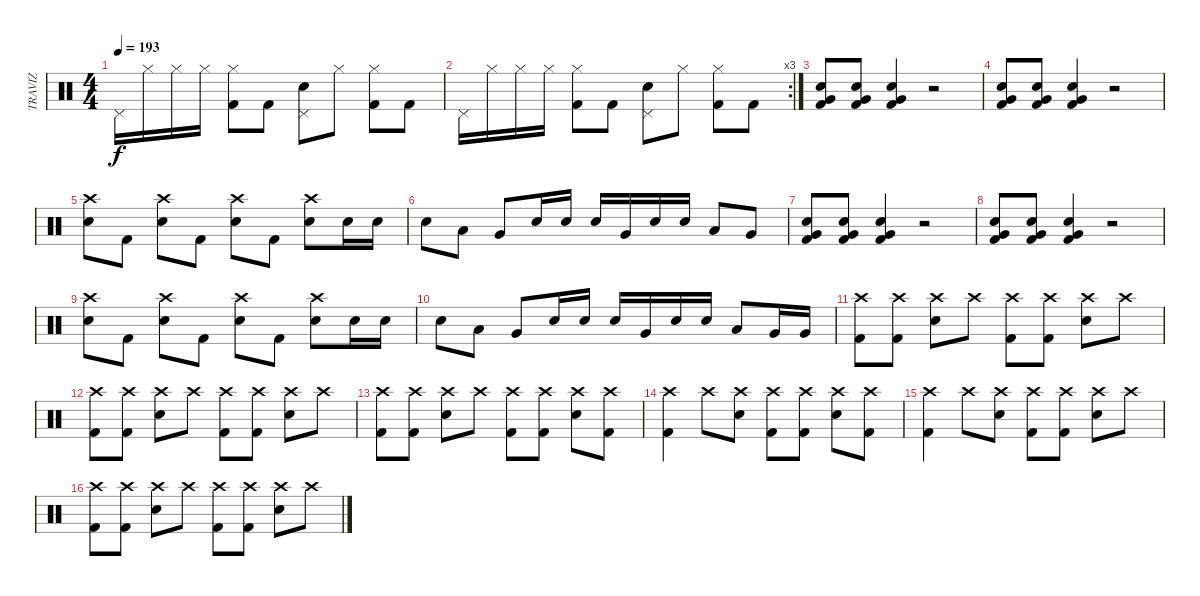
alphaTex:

\track ("TRAVIZ" "TRAVIZ") {instrument percussion}
\staff {score}
\articulation defaults
\ts (4 4)
\tempo 193
\clef neutral
\ks c "Pedal Hi-Hat (hit)".16{dy f} "Hi-Hat (closed)".16 "Hi-Hat (closed)".16 "Hi-Hat (closed)".16
("Hi-Hat (closed)" "Kick (hit) 2").8 "Kick (hit) 2".8 ("Snare (hit) 2" "Pedal Hi-Hat (hit)").8 "Hi-Hat (closed)".8 ("Hi-Hat (closed)" "Kick (hit) 2").8 "Kick (hit) 2".8 |
\rc 3 "Pedal Hi-Hat (hit)".16 "Hi-Hat (closed)".16 "Hi-Hat (closed)".16 "Hi-Hat (closed)".16
("Hi-Hat (closed)" "Kick (hit) 2").8 "Kick (hit) 2".8 ("Snare (hit) 2" "Pedal Hi-Hat (hit)").8 "Hi-Hat (closed)".8 ("Hi-Hat (closed)" "Kick (hit) 2").8 "Kick (hit) 2".8 |
("Snare (hit) 2" "Very Low Tom (hit)" "Kick (hit) 2").8 ("Snare (hit) 2" "Very Low Tom (hit)" "Kick (hit) 2").8 ("Snare (hit) 2" "Very Low Tom (hit)" "Kick (hit) 2").4 r.2 |
("Snare (hit) 2" "Very Low Tom (hit)" "Kick (hit) 2").8 ("Snare (hit) 2" "Very Low Tom (hit)" "Kick (hit) 2").8 ("Snare (hit) 2" "Very Low Tom (hit)" "Kick (hit) 2").4 r.2 |
("Crash high (hit)" "Snare (hit) 2").8 "Kick (hit) 2".8 ("Crash high (hit)" "Snare (hit) 2").8 "Kick (hit) 2".8 ("Crash high (hit)" "Snare (hit) 2").8 "Kick (hit) 2".8 ("Crash high (hit)" "Snare (hit) 2").8 "Snare (hit) 2".16 "Snare (hit) 2".16 |
"Snare (hit) 2".8 "Low Tom (hit)".8 "Very Low Tom (hit)".8 "Snare (hit) 2".16 "Snare (hit) 2".16 "Snare (hit) 2".16 "Very Low Tom (hit)".16 "Snare (hit) 2".16 "Snare (hit) 2".16 "Low Tom (hit)".8 "Very Low Tom (hit)".8 |
("Snare (hit) 2" "Very Low Tom (hit)" "Kick (hit) 2").8 ("Snare (hit) 2" "Very Low Tom (hit)" "Kick (hit) 2").8 ("Snare (hit) 2" "Very Low Tom (hit)" "Kick (hit) 2").4 r.2 |
("Snare (hit) 2" "Very Low Tom (hit)" "Kick (hit) 2").8 ("Snare (hit) 2" "Very Low Tom (hit)" "Kick (hit) 2").8 ("Snare (hit) 2" "Very Low Tom (hit)" "Kick (hit) 2").4 r.2 |
("Crash high (hit)" "Snare (hit) 2").8 "Kick (hit) 2".8 ("Crash high (hit)" "Snare (hit) 2").8 "Kick (hit) 2".8 ("Crash high (hit)" "Snare (hit) 2").8 "Kick (hit) 2".8 ("Crash high (hit)" "Snare (hit) 2").8 "Snare (hit) 2".16 "Snare (hit) 2".16 |
"Snare (hit) 2".8 "Low Tom (hit)".8 "Very Low Tom (hit)".8 "Snare (hit) 2".16 "Snare (hit) 2".16 "Snare (hit) 2".16 "Very Low Tom (hit)".16 "Snare (hit) 2".16 "Snare (hit) 2".16 "Low Tom (hit)".8 "Very Low Tom (hit)".16 "Very Low Tom (hit)".16 |
("Crash high (hit)" "Kick (hit) 2").8 ("Crash high (hit)" "Kick (hit) 2").8 ("Crash high (hit)" "Snare (hit) 2").8 "Crash high (hit)".8 ("Crash high (hit)" "Kick (hit) 2").8 ("Crash high (hit)" "Kick (hit) 2").8 ("Crash high (hit)" "Snare (hit) 2").8 "Crash high (hit)".8 |
("Crash high (hit)" "Kick (hit) 2").8 ("Crash high (hit)" "Kick (hit) 2").8 ("Crash high (hit)" "Snare (hit) 2").8 "Crash high (hit)".8 ("Crash high (hit)" "Kick (hit) 2").8 ("Crash high (hit)" "Kick (hit) 2").8 ("Crash high (hit)" "Snare (hit) 2").8 "Crash high (hit)".8 |
("Crash high (hit)" "Kick (hit) 2").8 ("Crash high (hit)" "Kick (hit) 2").8 ("Crash high (hit)" "Snare (hit) 2").8 "Crash high (hit)".8 ("Crash high (hit)" "Kick (hit) 2").8 ("Crash high (hit)" "Kick (hit) 2").8 ("Crash high (hit)" "Snare (hit) 2").8 ("Crash high (hit)" "Kick (hit) 2").8 |
("Crash high (hit)" "Kick (hit) 2").4 "Crash high (hit)".8 ("Crash high (hit)" "Snare (hit) 2").8 ("Crash high (hit)" "Kick (hit) 2").8 ("Crash high (hit)" "Kick (hit) 2").8 ("Crash high (hit)" "Snare (hit) 2").8 ("Crash high (hit)" "Kick (hit) 2").8 |
("Crash high (hit)" "Kick (hit) 2").4 "Crash high (hit)".8 ("Crash high (hit)" "Snare (hit) 2").8 ("Crash high (hit)" "Kick (hit) 2").8 ("Crash high (hit)" "Kick (hit) 2").8 ("Crash high (hit)" "Snare (hit) 2").8 "Crash high (hit)".8 |
("Crash high (hit)" "Kick (hit) 2").8 ("Crash high (hit)" "Kick (hit) 2").8 ("Crash high (hit)" "Snare (hit) 2").8 "Crash high (hit)".8 ("Crash high (hit)" "Kick (hit) 2").8 ("Crash high (hit)" "Kick (hit) 2").8 ("Crash high (hit)" "Snare (hit) 2").8 "Crash high (hit)".8
